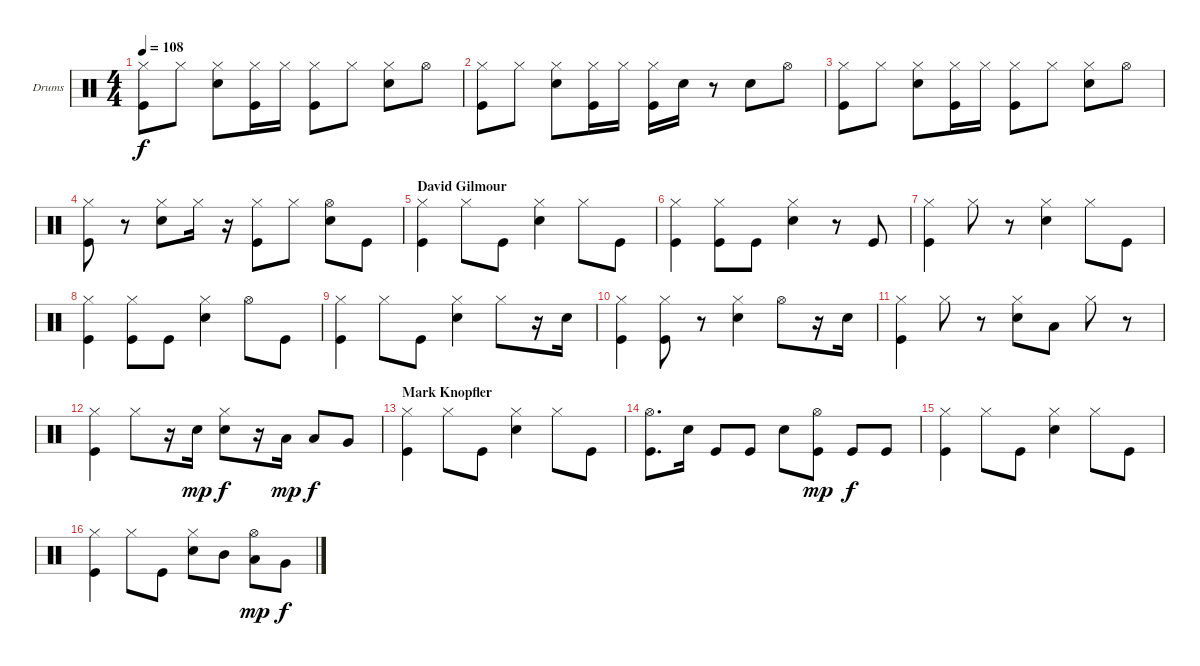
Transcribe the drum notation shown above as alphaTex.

\defaultSystemsLayout 4
\bracketExtendMode groupsimilarinstruments
\firstSystemTrackNameOrientation horizontal
\otherSystemsTrackNameOrientation horizontal
\track ("Drumkit" "Drums") {instrument percussion}
\staff {score}
\articulation defaults
\ts (4 4)
\tempo 108
\clef neutral
\ks c
("Hi-Hat (closed)" "Kick (hit)").8{dy f} "Hi-Hat (closed)".8 ("Hi-Hat (closed)" "Snare (hit) 2").8 ("Hi-Hat (closed)" "Kick (hit)").16 "Hi-Hat (closed)".16 ("Hi-Hat (closed)" "Kick (hit)").8 "Hi-Hat (closed)".8 ("Hi-Hat (closed)" "Snare (hit) 2").8 "Hi-Hat (open)".8 |
("Hi-Hat (closed)" "Kick (hit)").8 "Hi-Hat (closed)".8 ("Hi-Hat (closed)" "Snare (hit) 2").8 ("Hi-Hat (closed)" "Kick (hit)").16 "Hi-Hat (closed)".16 ("Hi-Hat (closed)" "Kick (hit)").16 "Snare (hit) 2".16 r.8 "Snare (hit) 2".8 "Hi-Hat (open)".8 |
("Hi-Hat (closed)" "Kick (hit)").8 "Hi-Hat (closed)".8 ("Hi-Hat (closed)" "Snare (hit) 2").8 ("Hi-Hat (closed)" "Kick (hit)").16 "Hi-Hat (closed)".16 ("Hi-Hat (closed)" "Kick (hit)").8 "Hi-Hat (closed)".8 ("Hi-Hat (closed)" "Snare (hit) 2").8 "Hi-Hat (open)".8 |
("Hi-Hat (closed)" "Kick (hit)").8 r.8 ("Hi-Hat (closed)" "Snare (hit) 2").8 "Hi-Hat (closed)".16 r.16 ("Hi-Hat (closed)" "Kick (hit)").8 "Hi-Hat (closed)".8 ("Hi-Hat (open)" "Snare (hit) 2").8 "Kick (hit)".8 |
\section ("" "David Gilmour")
("Hi-Hat (closed)" "Kick (hit)").4 "Hi-Hat (closed)".8 "Kick (hit)".8 ("Hi-Hat (closed)" "Snare (hit) 2").4 "Hi-Hat (closed)".8 "Kick (hit)".8 |
("Hi-Hat (closed)" "Kick (hit)").4 ("Hi-Hat (closed)" "Kick (hit)").8 "Kick (hit)".8 ("Hi-Hat (closed)" "Snare (hit) 2").4 r.8 "Kick (hit)".8 |
("Hi-Hat (closed)" "Kick (hit)").4 "Hi-Hat (closed)".8 r.8 ("Hi-Hat (closed)" "Snare (hit) 2").4 "Hi-Hat (closed)".8 "Kick (hit)".8 |
("Hi-Hat (closed)" "Kick (hit)").4 ("Hi-Hat (closed)" "Kick (hit)").8 "Kick (hit)".8 ("Hi-Hat (closed)" "Snare (hit) 2").4 "Hi-Hat (open)".8 "Kick (hit)".8 |
("Hi-Hat (closed)" "Kick (hit)").4 "Hi-Hat (closed)".8 "Kick (hit)".8 ("Hi-Hat (closed)" "Snare (hit) 2").4 "Hi-Hat (closed)".8 r.16 "Snare (hit) 2".16 |
("Hi-Hat (closed)" "Kick (hit)").4 ("Hi-Hat (closed)" "Kick (hit)").8 r.8 ("Hi-Hat (closed)" "Snare (hit) 2").4 "Hi-Hat (open)".8 r.16 "Snare (hit) 2".16 |
("Hi-Hat (closed)" "Kick (hit)").4 "Hi-Hat (closed)".8 r.8 ("Hi-Hat (closed)" "Snare (hit) 2").8 "Low Tom (hit)".8 "Hi-Hat (closed)".8 r.8 |
("Hi-Hat (closed)" "Kick (hit)").4 "Hi-Hat (closed)".8 r.16 "Snare (hit) 2".16{dy mp} ("Hi-Hat (closed)" "Snare (hit) 2").8{dy f} r.16 "Low Tom (hit)".16{dy mp} "Low Tom (hit)".8{dy f} "Very Low Tom (hit)".8 |
\section ("" "Mark Knopfler")
("Hi-Hat (closed)" "Kick (hit)").4 "Hi-Hat (closed)".8 "Kick (hit)".8 ("Hi-Hat (closed)" "Snare (hit) 2").4 "Hi-Hat (closed)".8 "Kick (hit)".8 |
("Hi-Hat (open)" "Kick (hit)").8{d} "Snare (hit) 2".16 "Kick (hit)".8 "Kick (hit)".8 "Snare (hit) 2".8 ("Hi-Hat (open)" "Kick (hit)").8{dy mp} "Kick (hit)".8{dy f} "Kick (hit)".8 |
("Hi-Hat (closed)" "Kick (hit)").4 "Hi-Hat (closed)".8 "Kick (hit)".8 ("Hi-Hat (closed)" "Snare (hit) 2").4 "Hi-Hat (closed)".8 "Kick (hit)".8 |
("Hi-Hat (closed)" "Kick (hit)").4 "Hi-Hat (closed)".8 "Kick (hit)".8 ("Hi-Hat (closed)" "Snare (hit) 2").8 "Mid Tom (hit)".8 ("Hi-Hat (open)" "Low Tom (hit)").8{dy mp} "Very Low Tom (hit)".8{dy f}
